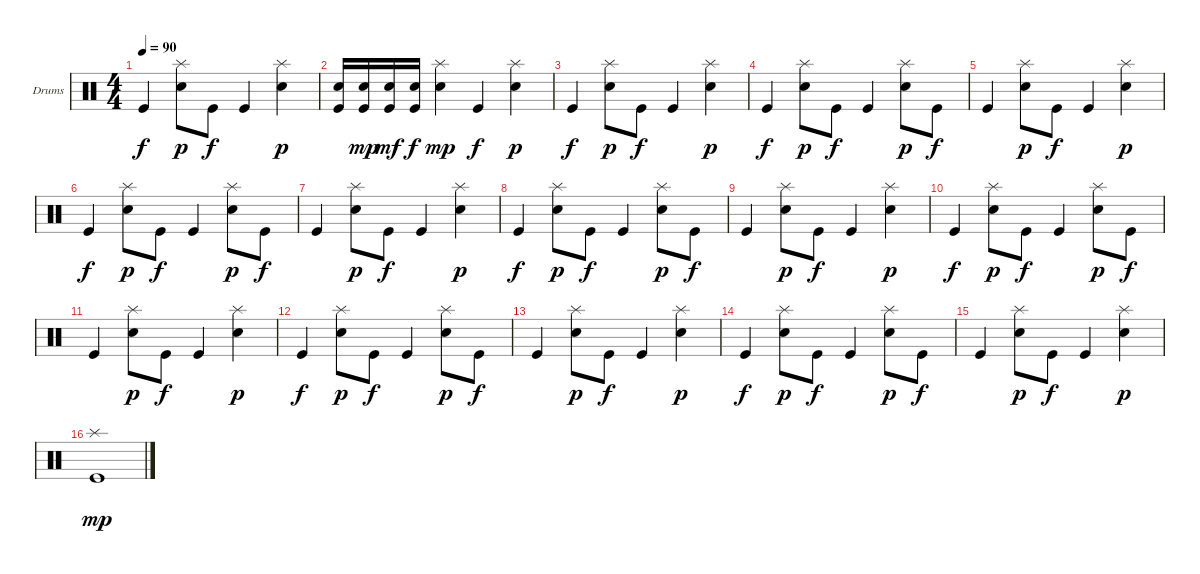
\bracketExtendMode groupsimilarinstruments
\firstSystemTrackNameOrientation horizontal
\otherSystemsTrackNameOrientation horizontal
\track ("Ударные" "Drums") {instrument percussion}
\staff {score}
\articulation defaults
\ts (4 4)
\tempo 90
\clef neutral
\ks c "Kick (hit)".4{dy f}
("Splash (hit)" "Snare (hit) 2").8{dy p} "Kick (hit)".8{dy f} "Kick (hit)".4 ("Splash (hit)" "Snare (hit) 2").4{dy p} |
("Snare (hit) 2" "Kick (hit)").16 ("Snare (hit) 2" "Kick (hit)").16{dy mp} ("Snare (hit) 2" "Kick (hit)").16{dy mf} ("Snare (hit) 2" "Kick (hit)").16{dy f} ("Splash (hit)" "Snare (hit) 2").4{dy mp} "Kick (hit)".4{dy f} ("Splash (hit)" "Snare (hit) 2").4{dy p} |
"Kick (hit)".4{dy f} ("Splash (hit)" "Snare (hit) 2").8{dy p} "Kick (hit)".8{dy f} "Kick (hit)".4 ("Splash (hit)" "Snare (hit) 2").4{dy p} |
"Kick (hit)".4{dy f} ("Splash (hit)" "Snare (hit) 2").8{dy p} "Kick (hit)".8{dy f} "Kick (hit)".4 ("Splash (hit)" "Snare (hit) 2").8{dy p} "Kick (hit)".8{dy f} |
"Kick (hit)".4 ("Splash (hit)" "Snare (hit) 2").8{dy p} "Kick (hit)".8{dy f} "Kick (hit)".4 ("Splash (hit)" "Snare (hit) 2").4{dy p} |
"Kick (hit)".4{dy f} ("Splash (hit)" "Snare (hit) 2").8{dy p} "Kick (hit)".8{dy f} "Kick (hit)".4 ("Splash (hit)" "Snare (hit) 2").8{dy p} "Kick (hit)".8{dy f} |
"Kick (hit)".4 ("Splash (hit)" "Snare (hit) 2").8{dy p} "Kick (hit)".8{dy f} "Kick (hit)".4 ("Splash (hit)" "Snare (hit) 2").4{dy p} |
"Kick (hit)".4{dy f} ("Splash (hit)" "Snare (hit) 2").8{dy p} "Kick (hit)".8{dy f} "Kick (hit)".4 ("Splash (hit)" "Snare (hit) 2").8{dy p} "Kick (hit)".8{dy f} |
"Kick (hit)".4 ("Splash (hit)" "Snare (hit) 2").8{dy p} "Kick (hit)".8{dy f} "Kick (hit)".4 ("Splash (hit)" "Snare (hit) 2").4{dy p} |
"Kick (hit)".4{dy f} ("Splash (hit)" "Snare (hit) 2").8{dy p} "Kick (hit)".8{dy f} "Kick (hit)".4 ("Splash (hit)" "Snare (hit) 2").8{dy p} "Kick (hit)".8{dy f} |
"Kick (hit)".4 ("Splash (hit)" "Snare (hit) 2").8{dy p} "Kick (hit)".8{dy f} "Kick (hit)".4 ("Splash (hit)" "Snare (hit) 2").4{dy p} |
"Kick (hit)".4{dy f} ("Splash (hit)" "Snare (hit) 2").8{dy p} "Kick (hit)".8{dy f} "Kick (hit)".4 ("Splash (hit)" "Snare (hit) 2").8{dy p} "Kick (hit)".8{dy f} |
"Kick (hit)".4 ("Splash (hit)" "Snare (hit) 2").8{dy p} "Kick (hit)".8{dy f} "Kick (hit)".4 ("Splash (hit)" "Snare (hit) 2").4{dy p} |
"Kick (hit)".4{dy f} ("Splash (hit)" "Snare (hit) 2").8{dy p} "Kick (hit)".8{dy f} "Kick (hit)".4 ("Splash (hit)" "Snare (hit) 2").8{dy p} "Kick (hit)".8{dy f} |
"Kick (hit)".4 ("Splash (hit)" "Snare (hit) 2").8{dy p} "Kick (hit)".8{dy f} "Kick (hit)".4 ("Splash (hit)" "Snare (hit) 2").4{dy p} |
("Splash (hit)" "Kick (hit)").1{dy mp}
